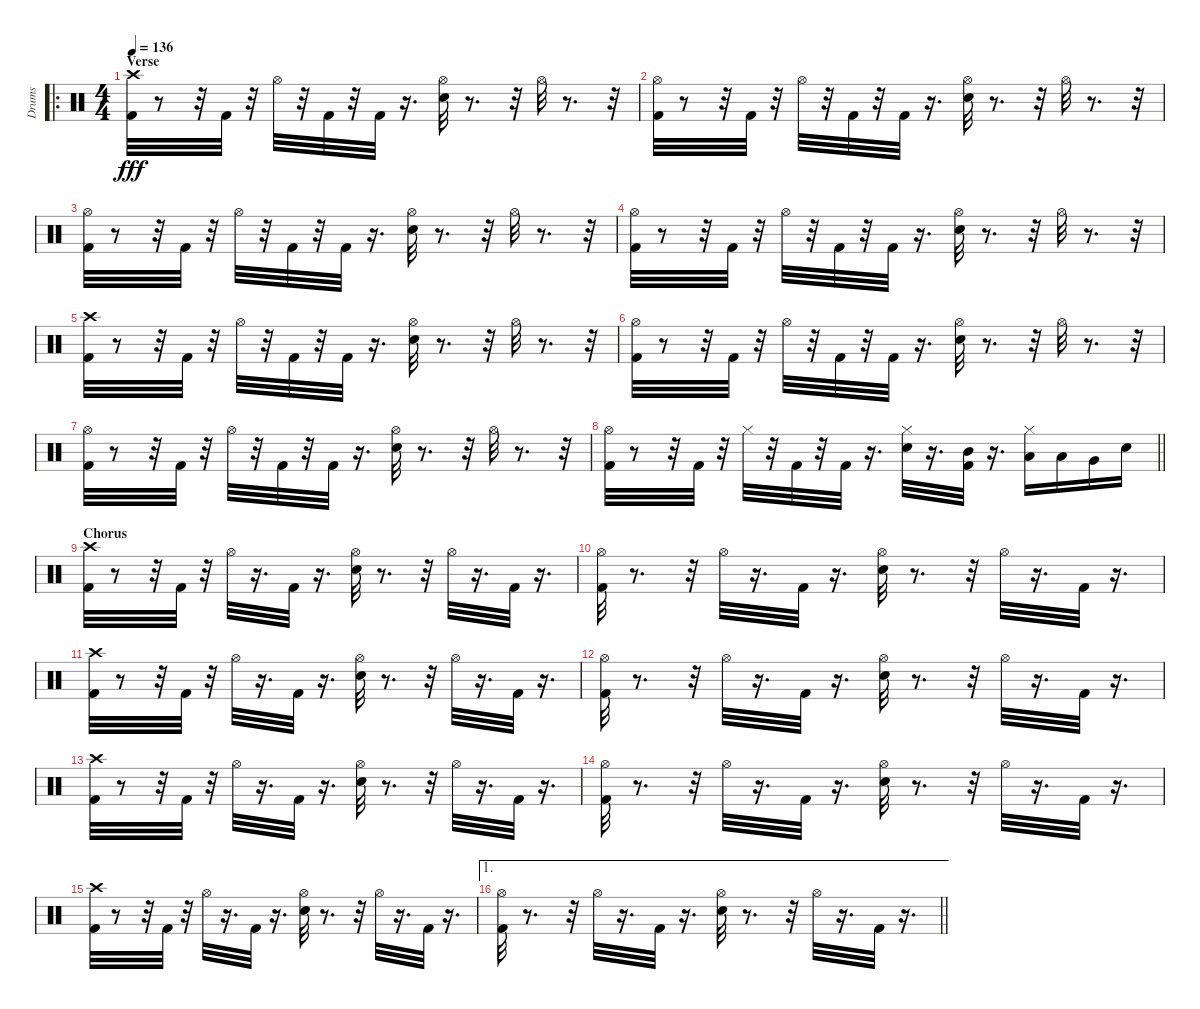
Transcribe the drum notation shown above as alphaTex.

\track ("Drums" "Drums") {instrument percussion}
\staff {score}
\articulation defaults
\ro
\ts (4 4)
\section ("" "Verse")
\tempo 136
\clef neutral
\ks c
("Crash high (hit)" "Kick (hit) 2").32{dy fff} r.8 r.32 "Kick (hit) 2".32 r.32 "Hi-Hat (open)".32 r.32 "Kick (hit) 2".32 r.32 "Kick (hit) 2".32 r.16{d} ("Hi-Hat (open)" "Electric Snare (hit)").32 r.8{d} r.32 "Hi-Hat (open)".32 r.8{d} r.32 |
("Hi-Hat (open)" "Kick (hit) 2").32 r.8 r.32 "Kick (hit) 2".32 r.32 "Hi-Hat (open)".32 r.32 "Kick (hit) 2".32 r.32 "Kick (hit) 2".32 r.16{d} ("Hi-Hat (open)" "Electric Snare (hit)").32 r.8{d} r.32 "Hi-Hat (open)".32 r.8{d} r.32 |
("Hi-Hat (open)" "Kick (hit) 2").32 r.8 r.32 "Kick (hit) 2".32 r.32 "Hi-Hat (open)".32 r.32 "Kick (hit) 2".32 r.32 "Kick (hit) 2".32 r.16{d} ("Hi-Hat (open)" "Electric Snare (hit)").32 r.8{d} r.32 "Hi-Hat (open)".32 r.8{d} r.32 |
("Hi-Hat (open)" "Kick (hit) 2").32 r.8 r.32 "Kick (hit) 2".32 r.32 "Hi-Hat (open)".32 r.32 "Kick (hit) 2".32 r.32 "Kick (hit) 2".32 r.16{d} ("Hi-Hat (open)" "Electric Snare (hit)").32 r.8{d} r.32 "Hi-Hat (open)".32 r.8{d} r.32 |
("Crash high (hit)" "Kick (hit) 2").32 r.8 r.32 "Kick (hit) 2".32 r.32 "Hi-Hat (open)".32 r.32 "Kick (hit) 2".32 r.32 "Kick (hit) 2".32 r.16{d} ("Hi-Hat (open)" "Electric Snare (hit)").32 r.8{d} r.32 "Hi-Hat (open)".32 r.8{d} r.32 |
("Hi-Hat (open)" "Kick (hit) 2").32 r.8 r.32 "Kick (hit) 2".32 r.32 "Hi-Hat (open)".32 r.32 "Kick (hit) 2".32 r.32 "Kick (hit) 2".32 r.16{d} ("Hi-Hat (open)" "Electric Snare (hit)").32 r.8{d} r.32 "Hi-Hat (open)".32 r.8{d} r.32 |
("Hi-Hat (open)" "Kick (hit) 2").32 r.8 r.32 "Kick (hit) 2".32 r.32 "Hi-Hat (open)".32 r.32 "Kick (hit) 2".32 r.32 "Kick (hit) 2".32 r.16{d} ("Hi-Hat (open)" "Electric Snare (hit)").32 r.8{d} r.32 "Hi-Hat (open)".32 r.8{d} r.32 |
\barLineRight lightlight
("Kick (hit) 2" "Hi-Hat (open)").32 r.8 r.32 "Kick (hit) 2".32 r.32 "Hi-Hat (closed)".32 r.32 "Kick (hit) 2".32 r.32 "Kick (hit) 2".32 r.16{d} ("Hi-Hat (closed)" "Electric Snare (hit)").32 r.16{d} ("Mid Tom (hit)" "Kick (hit) 2").32 r.16{d} ("Low Tom (hit)" "Hi-Hat (closed)").16 "Low Tom (hit)".16 "Very Low Tom (hit)".16 "Electric Snare (hit)".16 |
\section ("" "Chorus")
("Crash high (hit)" "Kick (hit) 2").32 r.8 r.32 "Kick (hit) 2".32 r.32 "Hi-Hat (open)".32 r.16{d} "Kick (hit) 2".32 r.16{d} ("Hi-Hat (open)" "Electric Snare (hit)").32 r.8{d} r.32 "Hi-Hat (open)".32 r.16{d} "Kick (hit) 2".32 r.16{d} |
("Hi-Hat (open)" "Kick (hit) 2").32 r.8{d} r.32 "Hi-Hat (open)".32 r.16{d} "Kick (hit) 2".32 r.16{d} ("Electric Snare (hit)" "Hi-Hat (open)").32 r.8{d} r.32 "Hi-Hat (open)".32 r.16{d} "Kick (hit) 2".32 r.16{d} |
("Crash high (hit)" "Kick (hit) 2").32 r.8 r.32 "Kick (hit) 2".32 r.32 "Hi-Hat (open)".32 r.16{d} "Kick (hit) 2".32 r.16{d} ("Hi-Hat (open)" "Electric Snare (hit)").32 r.8{d} r.32 "Hi-Hat (open)".32 r.16{d} "Kick (hit) 2".32 r.16{d} |
("Hi-Hat (open)" "Kick (hit) 2").32 r.8{d} r.32 "Hi-Hat (open)".32 r.16{d} "Kick (hit) 2".32 r.16{d} ("Electric Snare (hit)" "Hi-Hat (open)").32 r.8{d} r.32 "Hi-Hat (open)".32 r.16{d} "Kick (hit) 2".32 r.16{d} |
("Crash high (hit)" "Kick (hit) 2").32 r.8 r.32 "Kick (hit) 2".32 r.32 "Hi-Hat (open)".32 r.16{d} "Kick (hit) 2".32 r.16{d} ("Hi-Hat (open)" "Electric Snare (hit)").32 r.8{d} r.32 "Hi-Hat (open)".32 r.16{d} "Kick (hit) 2".32 r.16{d} |
("Hi-Hat (open)" "Kick (hit) 2").32 r.8{d} r.32 "Hi-Hat (open)".32 r.16{d} "Kick (hit) 2".32 r.16{d} ("Electric Snare (hit)" "Hi-Hat (open)").32 r.8{d} r.32 "Hi-Hat (open)".32 r.16{d} "Kick (hit) 2".32 r.16{d} |
("Crash high (hit)" "Kick (hit) 2").32 r.8 r.32 "Kick (hit) 2".32 r.32 "Hi-Hat (open)".32 r.16{d} "Kick (hit) 2".32 r.16{d} ("Hi-Hat (open)" "Electric Snare (hit)").32 r.8{d} r.32 "Hi-Hat (open)".32 r.16{d} "Kick (hit) 2".32 r.16{d} |
\ae 1
\barLineRight lightlight
("Hi-Hat (open)" "Kick (hit) 2").32 r.8{d} r.32 "Hi-Hat (open)".32 r.16{d} "Kick (hit) 2".32 r.16{d} ("Electric Snare (hit)" "Hi-Hat (open)").32 r.8{d} r.32 "Hi-Hat (open)".32 r.16{d} "Kick (hit) 2".32 r.16{d}
